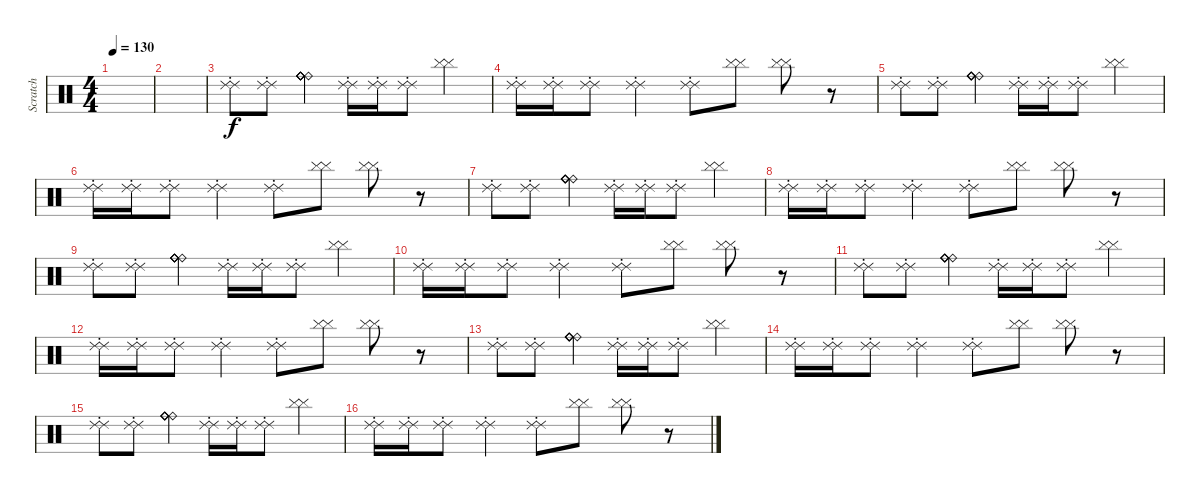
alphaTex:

\track ("Scratch" "Scratch") {instrument percussion}
\staff {score}
\articulation defaults
\ts (4 4)
\tempo 130
\clef neutral
\ks c
|
|
("Ride (choke) 2" "Ride (choke) 2").8 ("Ride (choke) 2" "Ride (choke) 2").8 ("Ride (bell)" "Ride (bell)" "Ride (bell)" "Ride (bell)" "Ride (bell)").4 ("Ride (choke) 2" "Ride (choke) 2").16 ("Ride (choke) 2" "Ride (choke) 2").16 ("Ride (choke) 2" "Ride (choke) 2").8 ("Cymbal (hit)" "Cymbal (hit)").4 |
("Ride (choke) 2" "Ride (choke) 2").16 ("Ride (choke) 2" "Ride (choke) 2").16 ("Ride (choke) 2" "Ride (choke) 2").8 ("Ride (choke) 2" "Ride (choke) 2").4 ("Ride (choke) 2" "Ride (choke) 2").8 ("Cymbal (hit)" "Cymbal (hit)").8 ("Cymbal (hit)" "Cymbal (hit)").8 r.8 |
("Ride (choke) 2" "Ride (choke) 2").8 ("Ride (choke) 2" "Ride (choke) 2").8 ("Ride (bell)" "Ride (bell)" "Ride (bell)" "Ride (bell)" "Ride (bell)").4 ("Ride (choke) 2" "Ride (choke) 2").16 ("Ride (choke) 2" "Ride (choke) 2").16 ("Ride (choke) 2" "Ride (choke) 2").8 ("Cymbal (hit)" "Cymbal (hit)").4 |
("Ride (choke) 2" "Ride (choke) 2").16 ("Ride (choke) 2" "Ride (choke) 2").16 ("Ride (choke) 2" "Ride (choke) 2").8 ("Ride (choke) 2" "Ride (choke) 2").4 ("Ride (choke) 2" "Ride (choke) 2").8 ("Cymbal (hit)" "Cymbal (hit)").8 ("Cymbal (hit)" "Cymbal (hit)").8 r.8 |
("Ride (choke) 2" "Ride (choke) 2").8 ("Ride (choke) 2" "Ride (choke) 2").8 ("Ride (bell)" "Ride (bell)" "Ride (bell)" "Ride (bell)" "Ride (bell)").4 ("Ride (choke) 2" "Ride (choke) 2").16 ("Ride (choke) 2" "Ride (choke) 2").16 ("Ride (choke) 2" "Ride (choke) 2").8 ("Cymbal (hit)" "Cymbal (hit)").4 |
("Ride (choke) 2" "Ride (choke) 2").16 ("Ride (choke) 2" "Ride (choke) 2").16 ("Ride (choke) 2" "Ride (choke) 2").8 ("Ride (choke) 2" "Ride (choke) 2").4 ("Ride (choke) 2" "Ride (choke) 2").8 ("Cymbal (hit)" "Cymbal (hit)").8 ("Cymbal (hit)" "Cymbal (hit)").8 r.8 |
("Ride (choke) 2" "Ride (choke) 2").8 ("Ride (choke) 2" "Ride (choke) 2").8 ("Ride (bell)" "Ride (bell)" "Ride (bell)" "Ride (bell)" "Ride (bell)").4 ("Ride (choke) 2" "Ride (choke) 2").16 ("Ride (choke) 2" "Ride (choke) 2").16 ("Ride (choke) 2" "Ride (choke) 2").8 ("Cymbal (hit)" "Cymbal (hit)").4 |
("Ride (choke) 2" "Ride (choke) 2").16 ("Ride (choke) 2" "Ride (choke) 2").16 ("Ride (choke) 2" "Ride (choke) 2").8 ("Ride (choke) 2" "Ride (choke) 2").4 ("Ride (choke) 2" "Ride (choke) 2").8 ("Cymbal (hit)" "Cymbal (hit)").8 ("Cymbal (hit)" "Cymbal (hit)").8 r.8 |
("Ride (choke) 2" "Ride (choke) 2").8 ("Ride (choke) 2" "Ride (choke) 2").8 ("Ride (bell)" "Ride (bell)" "Ride (bell)" "Ride (bell)" "Ride (bell)").4 ("Ride (choke) 2" "Ride (choke) 2").16 ("Ride (choke) 2" "Ride (choke) 2").16 ("Ride (choke) 2" "Ride (choke) 2").8 ("Cymbal (hit)" "Cymbal (hit)").4 |
("Ride (choke) 2" "Ride (choke) 2").16 ("Ride (choke) 2" "Ride (choke) 2").16 ("Ride (choke) 2" "Ride (choke) 2").8 ("Ride (choke) 2" "Ride (choke) 2").4 ("Ride (choke) 2" "Ride (choke) 2").8 ("Cymbal (hit)" "Cymbal (hit)").8 ("Cymbal (hit)" "Cymbal (hit)").8 r.8 |
("Ride (choke) 2" "Ride (choke) 2").8 ("Ride (choke) 2" "Ride (choke) 2").8 ("Ride (bell)" "Ride (bell)" "Ride (bell)" "Ride (bell)" "Ride (bell)").4 ("Ride (choke) 2" "Ride (choke) 2").16 ("Ride (choke) 2" "Ride (choke) 2").16 ("Ride (choke) 2" "Ride (choke) 2").8 ("Cymbal (hit)" "Cymbal (hit)").4 |
("Ride (choke) 2" "Ride (choke) 2").16 ("Ride (choke) 2" "Ride (choke) 2").16 ("Ride (choke) 2" "Ride (choke) 2").8 ("Ride (choke) 2" "Ride (choke) 2").4 ("Ride (choke) 2" "Ride (choke) 2").8 ("Cymbal (hit)" "Cymbal (hit)").8 ("Cymbal (hit)" "Cymbal (hit)").8 r.8 |
("Ride (choke) 2" "Ride (choke) 2").8 ("Ride (choke) 2" "Ride (choke) 2").8 ("Ride (bell)" "Ride (bell)" "Ride (bell)" "Ride (bell)" "Ride (bell)").4 ("Ride (choke) 2" "Ride (choke) 2").16 ("Ride (choke) 2" "Ride (choke) 2").16 ("Ride (choke) 2" "Ride (choke) 2").8 ("Cymbal (hit)" "Cymbal (hit)").4 |
("Ride (choke) 2" "Ride (choke) 2").16 ("Ride (choke) 2" "Ride (choke) 2").16 ("Ride (choke) 2" "Ride (choke) 2").8 ("Ride (choke) 2" "Ride (choke) 2").4 ("Ride (choke) 2" "Ride (choke) 2").8 ("Cymbal (hit)" "Cymbal (hit)").8 ("Cymbal (hit)" "Cymbal (hit)").8 r.8
